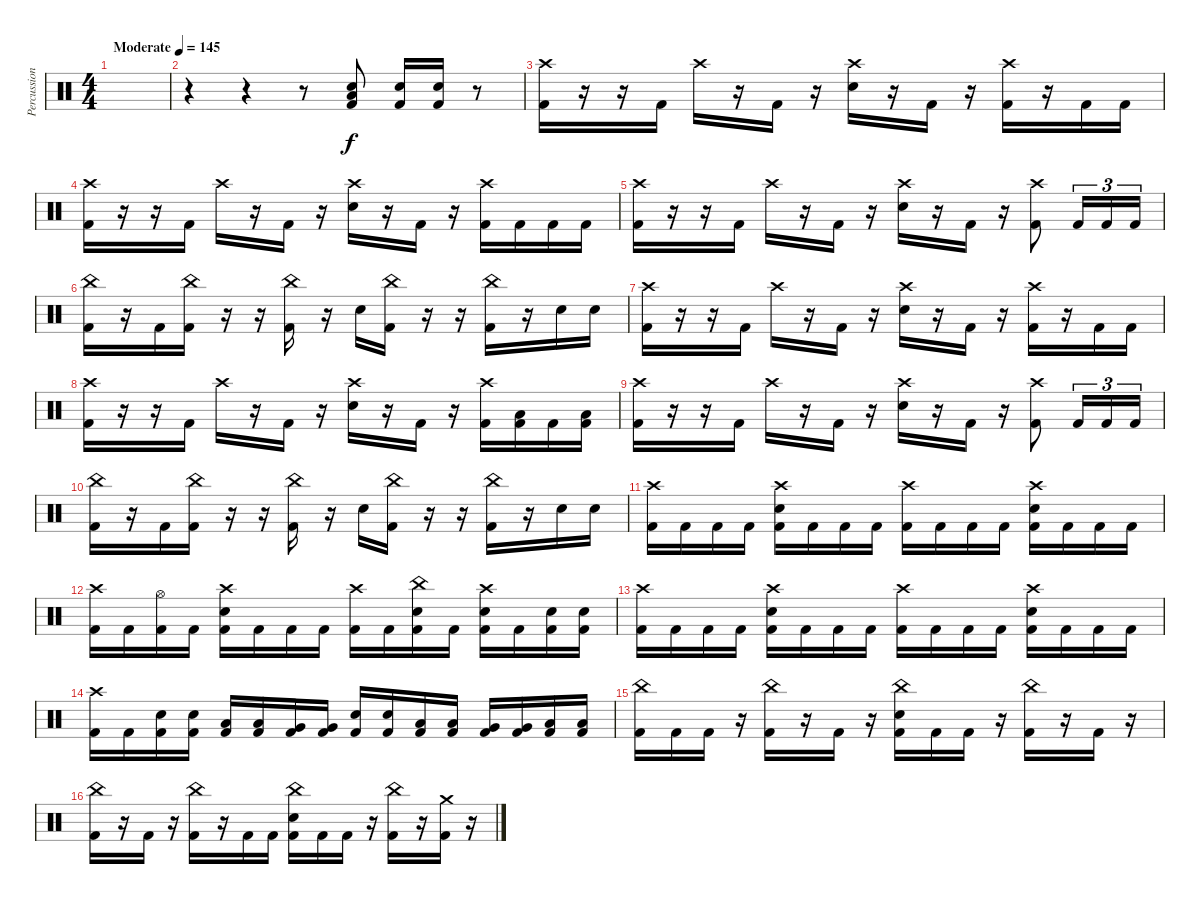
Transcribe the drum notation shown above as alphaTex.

\track ("Percussion" "Percussion") {instrument percussion}
\staff {score}
\articulation defaults
\ts (4 4)
\tempo (145 "Moderate")
\clef neutral
\ks c
|
r.4 r.4 r.8 ("Electric Snare (hit)" "Low Floor Tom (hit)" "Kick (hit) 2").8 ("Electric Snare (hit)" "Kick (hit) 2").16 ("Electric Snare (hit)" "Kick (hit) 2").16 r.8 |
("Crash high (hit)" "Kick (hit) 2").16 r.16 r.16 "Kick (hit) 2".16 "Crash high (hit)".16 r.16 "Kick (hit) 2".16 r.16 ("Crash high (hit)" "Electric Snare (hit)").16 r.16 "Kick (hit) 2".16 r.16 ("Crash high (hit)" "Kick (hit) 2").16 r.16 "Kick (hit) 2".16 "Kick (hit) 2".16 |
("Crash high (hit)" "Kick (hit) 2").16 r.16 r.16 "Kick (hit) 2".16 "Crash high (hit)".16 r.16 "Kick (hit) 2".16 r.16 ("Crash high (hit)" "Electric Snare (hit)").16 r.16 "Kick (hit) 2".16 r.16 ("Crash high (hit)" "Kick (hit) 2").16 "Kick (hit) 2".16 "Kick (hit) 2".16 "Kick (hit) 2".16 |
("Crash high (hit)" "Kick (hit) 2").16 r.16 r.16 "Kick (hit) 2".16 "Crash high (hit)".16 r.16 "Kick (hit) 2".16 r.16 ("Crash high (hit)" "Electric Snare (hit)").16 r.16 "Kick (hit) 2".16 r.16 ("Crash high (hit)" "Kick (hit) 2").8 "Kick (hit) 2".16{tu (3 2)} "Kick (hit) 2".16{tu (3 2)} "Kick (hit) 2".16{tu (3 2)} |
("China (hit)" "Kick (hit) 2").16 r.16 "Kick (hit) 2".16 ("China (hit)" "Kick (hit) 2").16 r.16 r.16 ("China (hit)" "Kick (hit) 2").16 r.16 "Electric Snare (hit)".16 ("China (hit)" "Kick (hit) 2").16 r.16 r.16 ("China (hit)" "Kick (hit) 2").16 r.16 "Electric Snare (hit)".16 "Electric Snare (hit)".16 |
("Crash high (hit)" "Kick (hit) 2").16 r.16 r.16 "Kick (hit) 2".16 "Crash high (hit)".16 r.16 "Kick (hit) 2".16 r.16 ("Crash high (hit)" "Electric Snare (hit)").16 r.16 "Kick (hit) 2".16 r.16 ("Crash high (hit)" "Kick (hit) 2").16 r.16 "Kick (hit) 2".16 "Kick (hit) 2".16 |
("Crash high (hit)" "Kick (hit) 2").16 r.16 r.16 "Kick (hit) 2".16 "Crash high (hit)".16 r.16 "Kick (hit) 2".16 r.16 ("Crash high (hit)" "Electric Snare (hit)").16 r.16 "Kick (hit) 2".16 r.16 ("Crash high (hit)" "Kick (hit) 2").16 ("Low Floor Tom (hit)" "Kick (hit) 2").16 "Kick (hit) 2".16 ("Low Floor Tom (hit)" "Kick (hit) 2").16 |
("Crash high (hit)" "Kick (hit) 2").16 r.16 r.16 "Kick (hit) 2".16 "Crash high (hit)".16 r.16 "Kick (hit) 2".16 r.16 ("Crash high (hit)" "Electric Snare (hit)").16 r.16 "Kick (hit) 2".16 r.16 ("Crash high (hit)" "Kick (hit) 2").8 "Kick (hit) 2".16{tu (3 2)} "Kick (hit) 2".16{tu (3 2)} "Kick (hit) 2".16{tu (3 2)} |
("China (hit)" "Kick (hit) 2").16 r.16 "Kick (hit) 2".16 ("China (hit)" "Kick (hit) 2").16 r.16 r.16 ("China (hit)" "Kick (hit) 2").16 r.16 "Electric Snare (hit)".16 ("China (hit)" "Kick (hit) 2").16 r.16 r.16 ("China (hit)" "Kick (hit) 2").16 r.16 "Electric Snare (hit)".16 "Electric Snare (hit)".16 |
("Crash high (hit)" "Kick (hit) 2").16 "Kick (hit) 2".16 "Kick (hit) 2".16 "Kick (hit) 2".16 ("Crash high (hit)" "Electric Snare (hit)" "Kick (hit) 2").16 "Kick (hit) 2".16 "Kick (hit) 2".16 "Kick (hit) 2".16 ("Crash high (hit)" "Kick (hit) 2").16 "Kick (hit) 2".16 "Kick (hit) 2".16 "Kick (hit) 2".16 ("Crash high (hit)" "Electric Snare (hit)" "Kick (hit) 2").16 "Kick (hit) 2".16 "Kick (hit) 2".16 "Kick (hit) 2".16 |
("Crash high (hit)" "Kick (hit) 2").16 "Kick (hit) 2".16 ("Hi-Hat (open)" "Kick (hit) 2").16 "Kick (hit) 2".16 ("Crash high (hit)" "Electric Snare (hit)" "Kick (hit) 2").16 "Kick (hit) 2".16 "Kick (hit) 2".16 "Kick (hit) 2".16 ("Crash high (hit)" "Kick (hit) 2").16 "Kick (hit) 2".16 ("China (hit)" "Electric Snare (hit)" "Kick (hit) 2").16 "Kick (hit) 2".16 ("Crash high (hit)" "Electric Snare (hit)" "Kick (hit) 2").16 "Kick (hit) 2".16 ("Electric Snare (hit)" "Kick (hit) 2").16 ("Electric Snare (hit)" "Kick (hit) 2").16 |
("Crash high (hit)" "Kick (hit) 2").16 "Kick (hit) 2".16 "Kick (hit) 2".16 "Kick (hit) 2".16 ("Crash high (hit)" "Electric Snare (hit)" "Kick (hit) 2").16 "Kick (hit) 2".16 "Kick (hit) 2".16 "Kick (hit) 2".16 ("Crash high (hit)" "Kick (hit) 2").16 "Kick (hit) 2".16 "Kick (hit) 2".16 "Kick (hit) 2".16 ("Crash high (hit)" "Electric Snare (hit)" "Kick (hit) 2").16 "Kick (hit) 2".16 "Kick (hit) 2".16 "Kick (hit) 2".16 |
("Crash high (hit)" "Kick (hit) 2").16 "Kick (hit) 2".16 ("Electric Snare (hit)" "Kick (hit) 2").16 ("Electric Snare (hit)" "Kick (hit) 2").16 ("Low Tom (hit)" "Kick (hit) 2").16 ("Low Tom (hit)" "Kick (hit) 2").16 ("Very Low Tom (hit)" "Kick (hit) 2").16 ("Very Low Tom (hit)" "Kick (hit) 2").16 ("Electric Snare (hit)" "Kick (hit) 2").16 ("Electric Snare (hit)" "Kick (hit) 2").16 ("Low Tom (hit)" "Kick (hit) 2").16 ("Low Tom (hit)" "Kick (hit) 2").16 ("Very Low Tom (hit)" "Kick (hit) 2").16 ("Very Low Tom (hit)" "Kick (hit) 2").16 ("Low Floor Tom (hit)" "Kick (hit) 2").16 ("Low Floor Tom (hit)" "Kick (hit) 2").16 |
("China (hit)" "Kick (hit) 2").16 "Kick (hit) 2".16 "Kick (hit) 2".16 r.16 ("China (hit)" "Kick (hit) 2").16 r.16 "Kick (hit) 2".16 r.16 ("China (hit)" "Electric Snare (hit)" "Kick (hit) 2").16 "Kick (hit) 2".16 "Kick (hit) 2".16 r.16 ("China (hit)" "Kick (hit) 2").16 r.16 "Kick (hit) 2".16 r.16 |
("China (hit)" "Kick (hit) 2").16 r.16 "Kick (hit) 2".16 r.16 ("China (hit)" "Kick (hit) 2").16 r.16 "Kick (hit) 2".16 "Kick (hit) 2".16 ("China (hit)" "Electric Snare (hit)" "Kick (hit) 2").16 "Kick (hit) 2".16 "Kick (hit) 2".16 r.16 ("China (hit)" "Kick (hit) 2").16 r.16 ("Crash medium (hit)" "Kick (hit) 2").16 r.16
